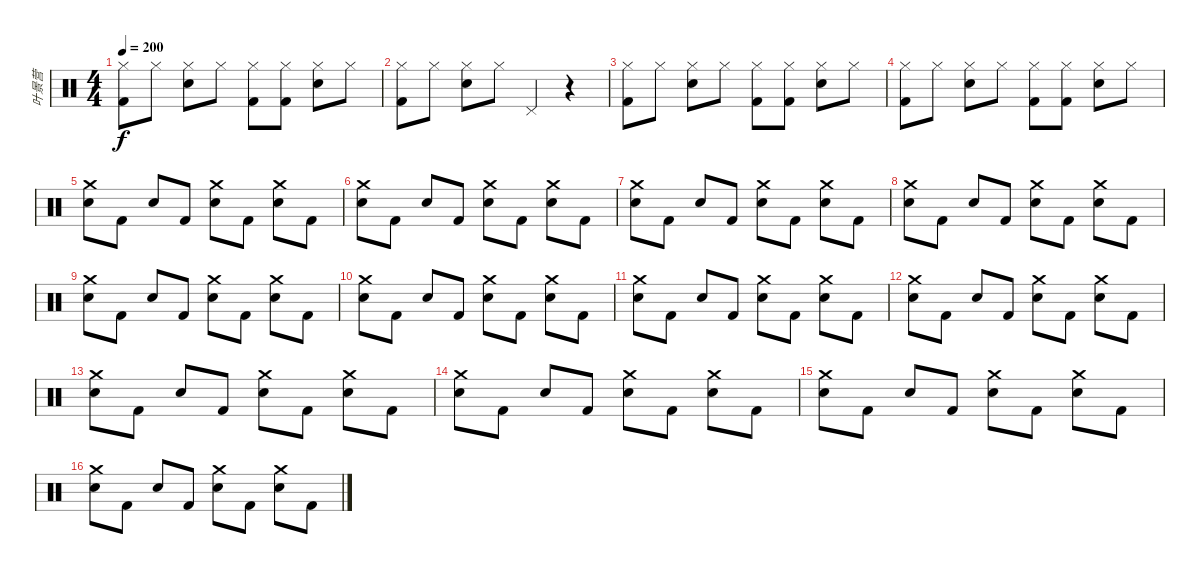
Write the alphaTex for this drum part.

\track ("叶景营" "叶景营") {instrument percussion}
\staff {score}
\articulation defaults
\ts (4 4)
\tempo 200
\clef neutral
\ks c
("Hi-Hat (closed)" "Kick (hit) 2").8{dy f} "Hi-Hat (closed)".8 ("Hi-Hat (closed)" "Electric Snare (hit)").8 "Hi-Hat (closed)".8 ("Hi-Hat (closed)" "Kick (hit) 2").8 ("Hi-Hat (closed)" "Kick (hit) 2").8 ("Hi-Hat (closed)" "Electric Snare (hit)").8 "Hi-Hat (closed)".8 |
("Hi-Hat (closed)" "Kick (hit) 2").8 "Hi-Hat (closed)".8 ("Hi-Hat (closed)" "Electric Snare (hit)").8 "Hi-Hat (closed)".8 "Pedal Hi-Hat (hit)".4 r.4 |
("Hi-Hat (closed)" "Kick (hit) 2").8 "Hi-Hat (closed)".8 ("Hi-Hat (closed)" "Electric Snare (hit)").8 "Hi-Hat (closed)".8 ("Hi-Hat (closed)" "Kick (hit) 2").8 ("Hi-Hat (closed)" "Kick (hit) 2").8 ("Hi-Hat (closed)" "Electric Snare (hit)").8 "Hi-Hat (closed)".8 |
("Hi-Hat (closed)" "Kick (hit) 2").8 "Hi-Hat (closed)".8 ("Hi-Hat (closed)" "Electric Snare (hit)").8 "Hi-Hat (closed)".8 ("Hi-Hat (closed)" "Kick (hit) 2").8 ("Hi-Hat (closed)" "Kick (hit) 2").8 ("Hi-Hat (closed)" "Electric Snare (hit)").8 "Hi-Hat (closed)".8 |
("Crash medium (hit)" "Electric Snare (hit)").8 "Kick (hit) 2".8 "Electric Snare (hit)".8 "Kick (hit) 2".8 ("Crash medium (hit)" "Electric Snare (hit)").8 "Kick (hit) 2".8 ("Crash medium (hit)" "Electric Snare (hit)").8 "Kick (hit) 2".8 |
("Crash medium (hit)" "Electric Snare (hit)").8 "Kick (hit) 2".8 "Electric Snare (hit)".8 "Kick (hit) 2".8 ("Crash medium (hit)" "Electric Snare (hit)").8 "Kick (hit) 2".8 ("Crash medium (hit)" "Electric Snare (hit)").8 "Kick (hit) 2".8 |
("Crash medium (hit)" "Electric Snare (hit)").8 "Kick (hit) 2".8 "Electric Snare (hit)".8 "Kick (hit) 2".8 ("Crash medium (hit)" "Electric Snare (hit)").8 "Kick (hit) 2".8 ("Crash medium (hit)" "Electric Snare (hit)").8 "Kick (hit) 2".8 |
("Crash medium (hit)" "Electric Snare (hit)").8 "Kick (hit) 2".8 "Electric Snare (hit)".8 "Kick (hit) 2".8 ("Crash medium (hit)" "Electric Snare (hit)").8 "Kick (hit) 2".8 ("Crash medium (hit)" "Electric Snare (hit)").8 "Kick (hit) 2".8 |
("Crash medium (hit)" "Electric Snare (hit)").8 "Kick (hit) 2".8 "Electric Snare (hit)".8 "Kick (hit) 2".8 ("Crash medium (hit)" "Electric Snare (hit)").8 "Kick (hit) 2".8 ("Crash medium (hit)" "Electric Snare (hit)").8 "Kick (hit) 2".8 |
("Crash medium (hit)" "Electric Snare (hit)").8 "Kick (hit) 2".8 "Electric Snare (hit)".8 "Kick (hit) 2".8 ("Crash medium (hit)" "Electric Snare (hit)").8 "Kick (hit) 2".8 ("Crash medium (hit)" "Electric Snare (hit)").8 "Kick (hit) 2".8 |
("Crash medium (hit)" "Electric Snare (hit)").8 "Kick (hit) 2".8 "Electric Snare (hit)".8 "Kick (hit) 2".8 ("Crash medium (hit)" "Electric Snare (hit)").8 "Kick (hit) 2".8 ("Crash medium (hit)" "Electric Snare (hit)").8 "Kick (hit) 2".8 |
("Crash medium (hit)" "Electric Snare (hit)").8 "Kick (hit) 2".8 "Electric Snare (hit)".8 "Kick (hit) 2".8 ("Crash medium (hit)" "Electric Snare (hit)").8 "Kick (hit) 2".8 ("Crash medium (hit)" "Electric Snare (hit)").8 "Kick (hit) 2".8 |
("Crash medium (hit)" "Electric Snare (hit)").8 "Kick (hit) 2".8 "Electric Snare (hit)".8 "Kick (hit) 2".8 ("Crash medium (hit)" "Electric Snare (hit)").8 "Kick (hit) 2".8 ("Crash medium (hit)" "Electric Snare (hit)").8 "Kick (hit) 2".8 |
("Crash medium (hit)" "Electric Snare (hit)").8 "Kick (hit) 2".8 "Electric Snare (hit)".8 "Kick (hit) 2".8 ("Crash medium (hit)" "Electric Snare (hit)").8 "Kick (hit) 2".8 ("Crash medium (hit)" "Electric Snare (hit)").8 "Kick (hit) 2".8 |
("Crash medium (hit)" "Electric Snare (hit)").8 "Kick (hit) 2".8 "Electric Snare (hit)".8 "Kick (hit) 2".8 ("Crash medium (hit)" "Electric Snare (hit)").8 "Kick (hit) 2".8 ("Crash medium (hit)" "Electric Snare (hit)").8 "Kick (hit) 2".8 |
("Crash medium (hit)" "Electric Snare (hit)").8 "Kick (hit) 2".8 "Electric Snare (hit)".8 "Kick (hit) 2".8 ("Crash medium (hit)" "Electric Snare (hit)").8 "Kick (hit) 2".8 ("Crash medium (hit)" "Electric Snare (hit)").8 "Kick (hit) 2".8
